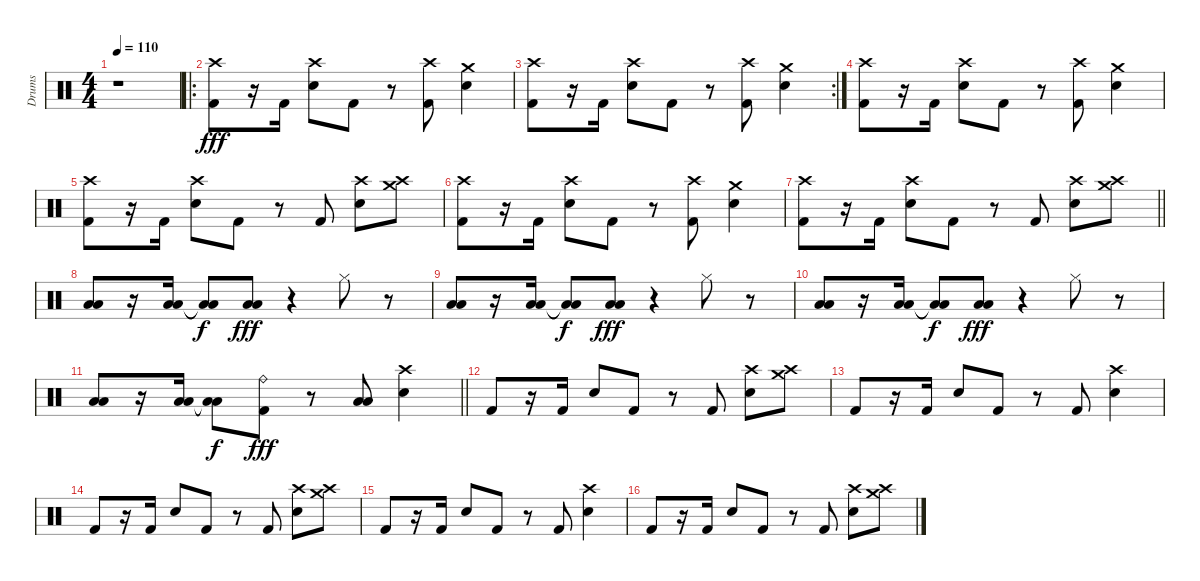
\track ("Drums" "Drums") {instrument percussion}
\staff {score}
\articulation defaults
\ts (4 4)
\tempo 110
\clef neutral
\ks c
r.1{dy fff} |
\ro
("Crash high (hit)" "Kick (hit) 2").8 r.16 "Kick (hit) 2".16 ("Crash high (hit)" "Electric Snare (hit)").8 "Kick (hit) 2".8 r.8 ("Crash high (hit)" "Kick (hit) 2").8 ("Crash medium (hit)" "Electric Snare (hit)").4 |
\rc 2
("Crash high (hit)" "Kick (hit) 2").8 r.16 "Kick (hit) 2".16 ("Crash high (hit)" "Electric Snare (hit)").8 "Kick (hit) 2".8 r.8 ("Crash high (hit)" "Kick (hit) 2").8 ("Crash medium (hit)" "Electric Snare (hit)").4 |
("Crash high (hit)" "Kick (hit) 2").8 r.16 "Kick (hit) 2".16 ("Crash high (hit)" "Electric Snare (hit)").8 "Kick (hit) 2".8 r.8 ("Crash high (hit)" "Kick (hit) 2").8 ("Crash medium (hit)" "Electric Snare (hit)").4 |
("Crash high (hit)" "Kick (hit) 2").8 r.16 "Kick (hit) 2".16 ("Crash high (hit)" "Electric Snare (hit)").8 "Kick (hit) 2".8 r.8 "Kick (hit) 2".8 ("Crash high (hit)" "Electric Snare (hit)").8 ("Crash high (hit)" "Crash medium (hit)").8 |
("Crash high (hit)" "Kick (hit) 2").8 r.16 "Kick (hit) 2".16 ("Crash high (hit)" "Electric Snare (hit)").8 "Kick (hit) 2".8 r.8 ("Crash high (hit)" "Kick (hit) 2").8 ("Crash medium (hit)" "Electric Snare (hit)").4 |
\barLineRight lightlight
("Crash high (hit)" "Kick (hit) 2").8 r.16 "Kick (hit) 2".16 ("Crash high (hit)" "Electric Snare (hit)").8 "Kick (hit) 2".8 r.8 "Kick (hit) 2".8 ("Crash high (hit)" "Electric Snare (hit)").8 ("Crash high (hit)" "Crash medium (hit)").8 |
("Low Tom (hit)" "Low Floor Tom (hit)").8 r.16 ("Low Tom (hit)" "Low Floor Tom (hit)").16 ("Low Tom (hit)"{t} "Low Floor Tom (hit)"{t}).8{dy f} ("Low Tom (hit)" "Low Floor Tom (hit)").8{dy fff} r.4 "Hi-Hat (closed)".8 r.8 |
("Low Tom (hit)" "Low Floor Tom (hit)").8 r.16 ("Low Tom (hit)" "Low Floor Tom (hit)").16 ("Low Tom (hit)"{t} "Low Floor Tom (hit)"{t}).8{dy f} ("Low Tom (hit)" "Low Floor Tom (hit)").8{dy fff} r.4 "Hi-Hat (closed)".8 r.8 |
("Low Tom (hit)" "Low Floor Tom (hit)").8 r.16 ("Low Tom (hit)" "Low Floor Tom (hit)").16 ("Low Tom (hit)"{t} "Low Floor Tom (hit)"{t}).8{dy f} ("Low Tom (hit)" "Low Floor Tom (hit)").8{dy fff} r.4 "Hi-Hat (closed)".8 r.8 |
\barLineRight lightlight
("Low Tom (hit)" "Low Floor Tom (hit)").8 r.16 ("Low Tom (hit)" "Low Floor Tom (hit)").16 ("Low Tom (hit)"{t} "Low Floor Tom (hit)"{t}).8{dy f} ("Ride (bell)" "Kick (hit) 2").8{dy fff} r.8 ("Low Tom (hit)" "Low Floor Tom (hit)").8 ("Crash high (hit)" "Electric Snare (hit)").4 |
"Kick (hit) 2".8 r.16 "Kick (hit) 2".16 "Electric Snare (hit)".8 "Kick (hit) 2".8 r.8 "Kick (hit) 2".8 ("Crash high (hit)" "Electric Snare (hit)").8 ("Crash high (hit)" "Crash medium (hit)").8 |
"Kick (hit) 2".8 r.16 "Kick (hit) 2".16 "Electric Snare (hit)".8 "Kick (hit) 2".8 r.8 "Kick (hit) 2".8 ("Crash high (hit)" "Electric Snare (hit)").4 |
"Kick (hit) 2".8 r.16 "Kick (hit) 2".16 "Electric Snare (hit)".8 "Kick (hit) 2".8 r.8 "Kick (hit) 2".8 ("Crash high (hit)" "Electric Snare (hit)").8 ("Crash high (hit)" "Crash medium (hit)").8 |
"Kick (hit) 2".8 r.16 "Kick (hit) 2".16 "Electric Snare (hit)".8 "Kick (hit) 2".8 r.8 "Kick (hit) 2".8 ("Crash high (hit)" "Electric Snare (hit)").4 |
"Kick (hit) 2".8 r.16 "Kick (hit) 2".16 "Electric Snare (hit)".8 "Kick (hit) 2".8 r.8 "Kick (hit) 2".8 ("Crash high (hit)" "Electric Snare (hit)").8 ("Crash high (hit)" "Crash medium (hit)").8
